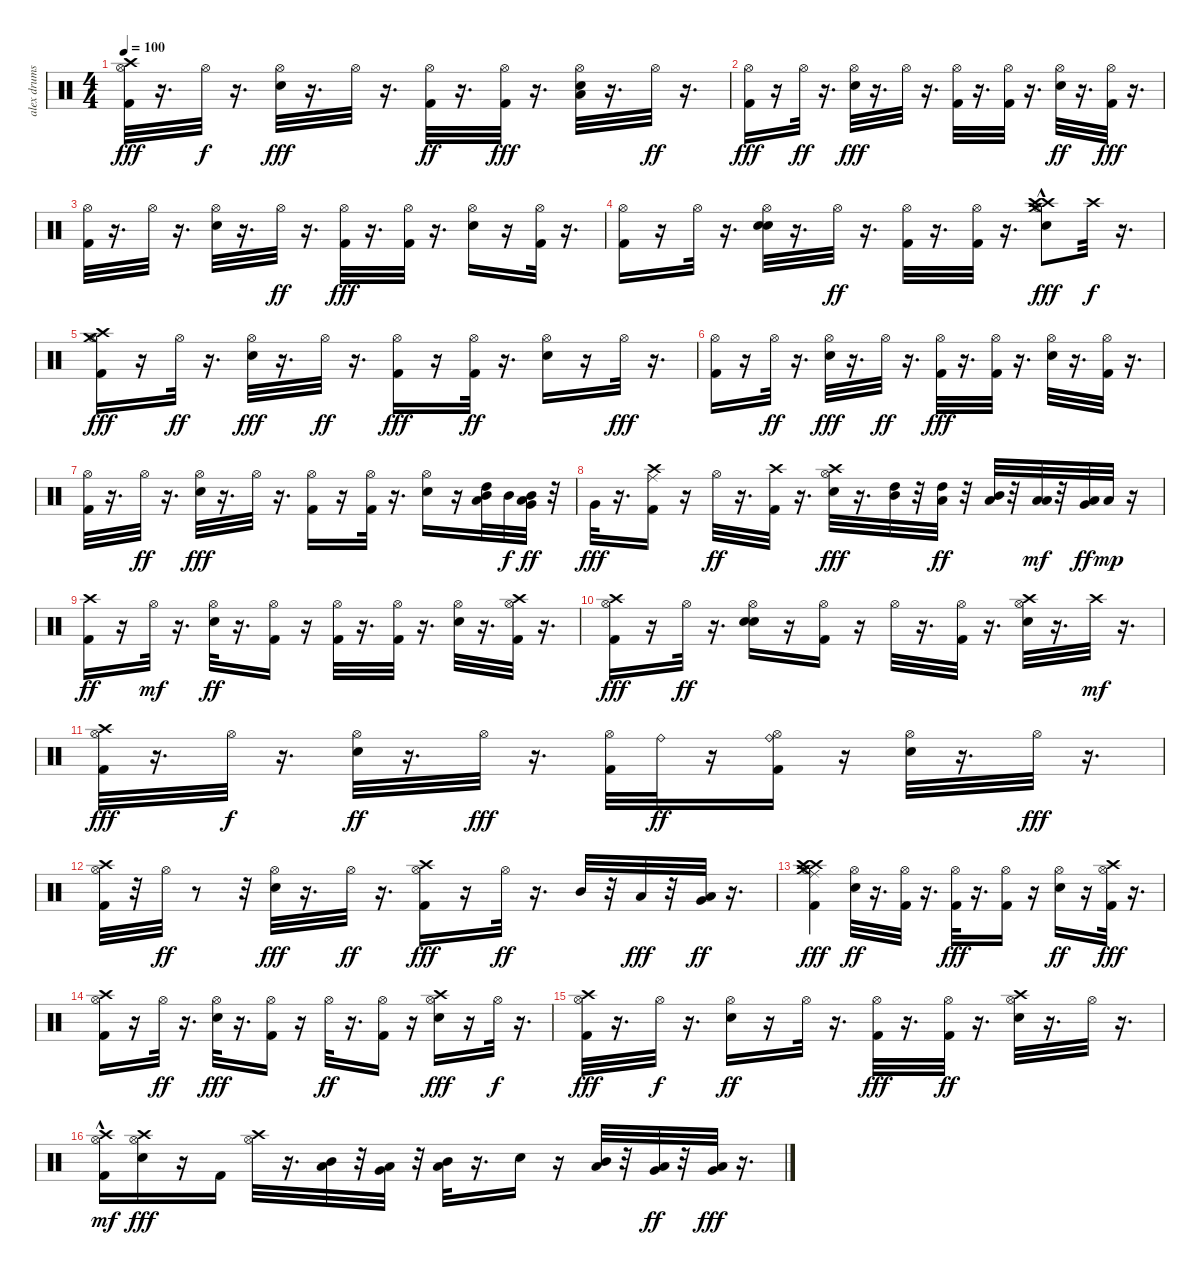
\track ("alex drums" "alex drums") {instrument percussion}
\staff {score}
\articulation defaults
\ts (4 4)
\tempo 100
\clef neutral
\ks c
("Kick (hit) 2" "Crash high (hit)" "Hi-Hat (open)").32{dy fff} r.16{d} "Hi-Hat (open)".32{dy f} r.16{d} ("Hi-Hat (open)" "Electric Snare (hit)").32{dy fff} r.16{d} "Hi-Hat (open)".32 r.16{d} ("Kick (hit) 2" "Hi-Hat (open)").32{dy ff} r.16{d} ("Hi-Hat (open)" "Kick (hit) 2").32{dy fff} r.16{d} ("Hi-Hat (open)" "Low Floor Tom (hit)" "Electric Snare (hit)").32 r.16{d} "Hi-Hat (open)".32{dy ff} r.16{d} |
("Kick (hit) 2" "Hi-Hat (open)").16{dy fff} r.16 "Hi-Hat (open)".32{dy ff} r.16{d} ("Hi-Hat (open)" "Electric Snare (hit)").32{dy fff} r.16{d} "Hi-Hat (open)".32 r.16{d} ("Hi-Hat (open)" "Kick (hit) 2").32 r.16{d} ("Hi-Hat (open)" "Kick (hit) 2").32 r.16{d} ("Hi-Hat (open)" "Electric Snare (hit)").32{dy ff} r.16{d} ("Hi-Hat (open)" "Kick (hit) 2").32{dy fff} r.16{d} |
("Kick (hit) 2" "Hi-Hat (open)").32 r.16{d} "Hi-Hat (open)".32 r.16{d} ("Hi-Hat (open)" "Electric Snare (hit)").32 r.16{d} "Hi-Hat (open)".32{dy ff} r.16{d} ("Kick (hit) 2" "Hi-Hat (open)").32{dy fff} r.16{d} ("Kick (hit) 2" "Hi-Hat (open)").32 r.16{d} ("Hi-Hat (open)" "Electric Snare (hit)").16 r.16 ("Kick (hit) 2" "Hi-Hat (open)").32 r.16{d} |
("Hi-Hat (open)" "Kick (hit) 2").16 r.16 "Hi-Hat (open)".32 r.16{d} ("Hi-Hat (open)" "Snare (hit) 2" "Electric Snare (hit)").32 r.16{d} "Hi-Hat (open)".32{dy ff} r.16{d} ("Hi-Hat (open)" "Kick (hit) 2").32 r.16{d} ("Hi-Hat (open)" "Kick (hit) 2").32 r.16{d} ("Crash medium (hit)"{hac} "Crash high (hit)" "Hi-Hat (open)" "Electric Snare (hit)" "Crash high (hit)").8{dy fff} "Crash high (hit)".32{dy f} r.16{d} |
("Crash medium (hit)" "Crash high (hit)" "Hi-Hat (open)" "Kick (hit) 2").16{dy fff} r.16 "Hi-Hat (open)".32{dy ff} r.16{d} ("Hi-Hat (open)" "Electric Snare (hit)").32{dy fff} r.16{d} "Hi-Hat (open)".32{dy ff} r.16{d} ("Hi-Hat (open)" "Kick (hit) 2").16{dy fff} r.16 ("Hi-Hat (open)" "Kick (hit) 2").32{dy ff} r.16{d} ("Hi-Hat (open)" "Electric Snare (hit)").16 r.16 "Hi-Hat (open)".32{dy fff} r.16{d} |
("Kick (hit) 2" "Hi-Hat (open)").16 r.16 "Hi-Hat (open)".32{dy ff} r.16{d} ("Hi-Hat (open)" "Electric Snare (hit)").32{dy fff} r.16{d} "Hi-Hat (open)".32{dy ff} r.16{d} ("Hi-Hat (open)" "Kick (hit) 2").32{dy fff} r.16{d} ("Hi-Hat (open)" "Kick (hit) 2").32 r.16{d} ("Hi-Hat (open)" "Electric Snare (hit)").32 r.16{d} ("Kick (hit) 2" "Hi-Hat (open)").32 r.16{d} |
("Hi-Hat (open)" "Kick (hit) 2").32 r.16{d} "Hi-Hat (open)".32{dy ff} r.16{d} ("Hi-Hat (open)" "Electric Snare (hit)").32{dy fff} r.16{d} "Hi-Hat (open)".32 r.16{d} ("Hi-Hat (open)" "Kick (hit) 2").16 r.16 ("Hi-Hat (open)" "Kick (hit) 2").32 r.16{d} ("Hi-Hat (open)" "Electric Snare (hit)").16 r.16 ("High Tom (hit)" "Low Tom (hit)" "Mid Tom (hit)").32 "Mid Tom (hit)".32{dy f} ("Mid Tom (hit)" "Low Floor Tom (hit)" "Very Low Tom (hit)").32{dy ff} r.32 |
"Very Low Tom (hit)".32{dy fff} r.16{d} ("Ride (middle)" "Crash high (hit)" "Kick (hit) 2").16 r.16 "Hi-Hat (open)".32{dy ff} r.16{d} ("Kick (hit) 2" "Crash high (hit)").32 r.16{d} ("Crash high (hit)" "Hi-Hat (open)" "Electric Snare (hit)").32{dy fff} r.16{d} ("High Tom (hit)" "Mid Tom (hit)").32 r.32 ("Low Tom (hit)" "High Tom (hit)").32{dy ff} r.32 ("Mid Tom (hit)" "Low Tom (hit)").32 r.32 ("Low Tom (hit)" "Low Floor Tom (hit)").32{dy mf} r.32 ("Low Tom (hit)" "Very Low Tom (hit)").32{dy ff} "Low Floor Tom (hit)".32{dy mp} r.16 |
("Kick (hit) 2" "Crash high (hit)").16{dy ff} r.16 "Hi-Hat (open)".32{dy mf} r.16{d} ("Hi-Hat (open)" "Electric Snare (hit)").32{dy ff} r.16{d} ("Hi-Hat (open)" "Kick (hit) 2").16 r.16 ("Hi-Hat (open)" "Kick (hit) 2").32 r.16{d} ("Hi-Hat (open)" "Kick (hit) 2").32 r.16{d} ("Hi-Hat (open)" "Electric Snare (hit)").32 r.16{d} ("Hi-Hat (open)" "Kick (hit) 2" "Crash high (hit)").32 r.16{d} |
("Hi-Hat (open)" "Crash high (hit)" "Kick (hit) 2").16{dy fff} r.16 "Hi-Hat (open)".32{dy ff} r.16{d} ("Snare (hit) 2" "Hi-Hat (open)" "Electric Snare (hit)").16 r.16 ("Kick (hit) 2" "Hi-Hat (open)").16 r.16 "Hi-Hat (open)".32 r.16{d} ("Kick (hit) 2" "Hi-Hat (open)").32 r.16{d} ("Hi-Hat (open)" "Crash high (hit)" "Electric Snare (hit)").32 r.16{d} "Crash high (hit)".32{dy mf} r.16{d} |
("Kick (hit) 2" "Hi-Hat (open)" "Crash high (hit)").32{dy fff} r.16{d} "Hi-Hat (open)".32{dy f} r.16{d} ("Hi-Hat (open)" "Electric Snare (hit)").32{dy ff} r.16{d} "Hi-Hat (open)".32{dy fff} r.16{d} ("Kick (hit) 2" "Hi-Hat (open)").32 "Ride (bell)".32{dy ff} r.16 ("Ride (bell)" "Hi-Hat (open)" "Kick (hit) 2").16 r.16 ("Hi-Hat (open)" "Electric Snare (hit)").32 r.16{d} "Hi-Hat (open)".32{dy fff} r.16{d} |
("Hi-Hat (open)" "Crash high (hit)" "Kick (hit) 2").32 r.32 "Hi-Hat (open)".32{dy ff} r.8 r.32 ("Electric Snare (hit)" "Hi-Hat (open)").32{dy fff} r.16{d} "Hi-Hat (open)".32{dy ff} r.16{d} ("Kick (hit) 2" "Hi-Hat (open)" "Crash high (hit)").16{dy fff} r.16 "Hi-Hat (open)".32{dy ff} r.16{d} "Mid Tom (hit)".32 r.32 "Low Tom (hit)".32{dy fff} r.32 ("Very Low Tom (hit)" "Low Floor Tom (hit)").32{dy ff} r.16{d} |
("Crash high (hit)" "Crash medium (hit)" "Ride (middle)" "Hi-Hat (open)" "Crash high (hit)" "Kick (hit) 2").4{dy fff} ("Hi-Hat (open)" "Electric Snare (hit)").32{dy ff} r.16{d} ("Kick (hit) 2" "Hi-Hat (open)").32 r.16{d} ("Hi-Hat (open)" "Kick (hit) 2").32{dy fff} r.16{d} ("Kick (hit) 2" "Hi-Hat (open)").16 r.16 ("Hi-Hat (open)" "Electric Snare (hit)").16{dy ff} r.16 ("Hi-Hat (open)" "Crash high (hit)" "Kick (hit) 2").32{dy fff} r.16{d} |
("Hi-Hat (open)" "Crash high (hit)" "Kick (hit) 2").16 r.16 "Hi-Hat (open)".32{dy ff} r.16{d} ("Hi-Hat (open)" "Electric Snare (hit)").32{dy fff} r.16{d} ("Kick (hit) 2" "Hi-Hat (open)").16 r.16 "Hi-Hat (open)".32{dy ff} r.16{d} ("Kick (hit) 2" "Hi-Hat (open)").16 r.16 ("Hi-Hat (open)" "Crash high (hit)" "Electric Snare (hit)").16{dy fff} r.16 "Hi-Hat (open)".32{dy f} r.16{d} |
("Hi-Hat (open)" "Kick (hit) 2" "Crash high (hit)").32{dy fff} r.16{d} "Hi-Hat (open)".32{dy f} r.16{d} ("Hi-Hat (open)" "Electric Snare (hit)").16{dy ff} r.16 "Hi-Hat (open)".32 r.16{d} ("Kick (hit) 2" "Hi-Hat (open)").32{dy fff} r.16{d} ("Kick (hit) 2" "Hi-Hat (open)").32{dy ff} r.16{d} ("Crash high (hit)" "Hi-Hat (open)" "Electric Snare (hit)").32 r.16{d} "Hi-Hat (open)".32 r.16{d} |
("Hi-Hat (open)" "Crash high (hit)" "Kick (hit) 2"{hac}).16{dy mf} ("Crash high (hit)" "Hi-Hat (open)" "Electric Snare (hit)").16{dy fff} r.16 "Kick (hit) 2".16 ("Crash high (hit)" "Hi-Hat (open)").32 r.16{d} ("Low Tom (hit)" "Mid Tom (hit)").32 r.32 ("Low Floor Tom (hit)" "Very Low Tom (hit)").32 r.32 ("Mid Tom (hit)" "Low Tom (hit)").32 r.16{d} "Electric Snare (hit)".16 r.16 ("Low Tom (hit)" "Mid Tom (hit)").32 r.32 ("Very Low Tom (hit)" "Low Tom (hit)").32{dy ff} r.32 ("Very Low Tom (hit)" "Low Floor Tom (hit)").32{dy fff} r.16{d}
